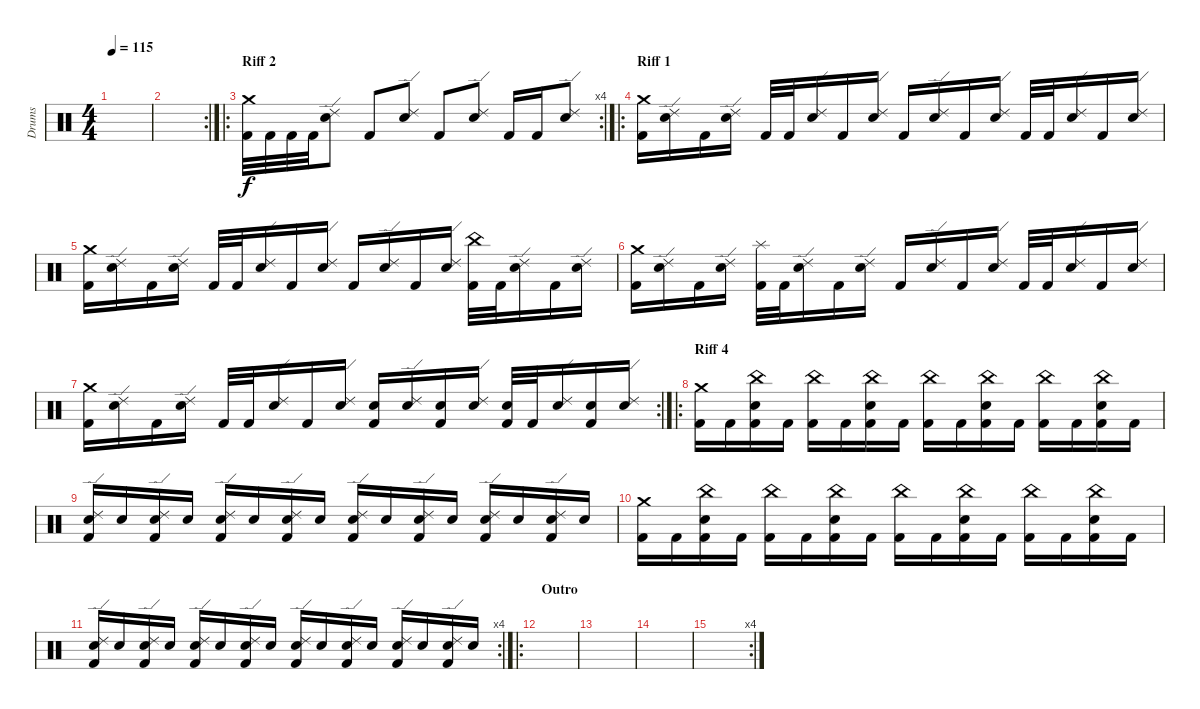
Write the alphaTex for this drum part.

\track ("Drums" "Drums") {instrument percussion}
\staff {score}
\articulation defaults
\ts (4 4)
\tempo 115
\clef neutral
\ks c
|
\rc 2
|
\ro
\rc 4
\section ("" "Riff 2")
("Kick (hit) 2" "Crash medium (hit)").32 "Kick (hit) 2".32 "Kick (hit) 2".32 "Kick (hit) 2".32 ("Snare (hit) 2" "Ride (edge) 2").8 "Kick (hit) 2".8 ("Snare (hit) 2" "Ride (edge) 2").8 "Kick (hit) 2".8 ("Snare (hit) 2" "Ride (edge) 2").8 "Kick (hit) 2".16 "Kick (hit) 2".16 ("Snare (hit) 2" "Ride (edge) 2").8 |
\ro
\section ("" "Riff 1")
("Kick (hit) 2" "Crash medium (hit)").16 ("Snare (hit) 2" "Ride (edge) 2").16 "Kick (hit) 2".16 ("Snare (hit) 2" "Ride (edge) 2").16 "Kick (hit) 2".32 "Kick (hit) 2".32 ("Snare (hit) 2" "Ride (edge) 2").16 "Kick (hit) 2".16 ("Snare (hit) 2" "Ride (edge) 2").16 "Kick (hit) 2".16 ("Snare (hit) 2" "Ride (edge) 2").16 "Kick (hit) 2".16 ("Snare (hit) 2" "Ride (edge) 2").16 "Kick (hit) 2".32 "Kick (hit) 2".32 ("Snare (hit) 2" "Ride (edge) 2").16 "Kick (hit) 2".16 ("Snare (hit) 2" "Ride (edge) 2").16 |
("Kick (hit) 2" "Crash medium (hit)").16 ("Snare (hit) 2" "Ride (edge) 2").16 "Kick (hit) 2".16 ("Snare (hit) 2" "Ride (edge) 2").16 "Kick (hit) 2".32 "Kick (hit) 2".32 ("Snare (hit) 2" "Ride (edge) 2").16 "Kick (hit) 2".16 ("Snare (hit) 2" "Ride (edge) 2").16 "Kick (hit) 2".16 ("Snare (hit) 2" "Ride (edge) 2").16 "Kick (hit) 2".16 ("Snare (hit) 2" "Ride (edge) 2").16 ("Kick (hit) 2" "China (hit)").32 "Kick (hit) 2".32 ("Snare (hit) 2" "Ride (edge) 2").16 "Kick (hit) 2".16 ("Snare (hit) 2" "Ride (edge) 2").16 |
("Kick (hit) 2" "Crash medium (hit)").16 ("Snare (hit) 2" "Ride (edge) 2").16 "Kick (hit) 2".16 ("Snare (hit) 2" "Ride (edge) 2").16 ("Kick (hit) 2" "Splash (hit)").32 "Kick (hit) 2".32 ("Snare (hit) 2" "Ride (edge) 2").16 "Kick (hit) 2".16 ("Snare (hit) 2" "Ride (edge) 2").16 "Kick (hit) 2".16 ("Snare (hit) 2" "Ride (edge) 2").16 "Kick (hit) 2".16 ("Snare (hit) 2" "Ride (edge) 2").16 "Kick (hit) 2".32 "Kick (hit) 2".32 ("Snare (hit) 2" "Ride (edge) 2").16 "Kick (hit) 2".16 ("Snare (hit) 2" "Ride (edge) 2").16 |
\rc 2
("Kick (hit) 2" "Crash medium (hit)").16 ("Snare (hit) 2" "Ride (edge) 2").16 "Kick (hit) 2".16 ("Snare (hit) 2" "Ride (edge) 2").16 "Kick (hit) 2".32 "Kick (hit) 2".32 ("Snare (hit) 2" "Ride (edge) 2").16 "Kick (hit) 2".16 ("Snare (hit) 2" "Ride (edge) 2").16 ("Kick (hit) 2" "Snare (hit) 2").16 ("Snare (hit) 2" "Ride (edge) 2").16 ("Kick (hit) 2" "Snare (hit) 2").16 ("Snare (hit) 2" "Ride (edge) 2").16 ("Kick (hit) 2" "Snare (hit) 2").32 "Kick (hit) 2".32 ("Snare (hit) 2" "Ride (edge) 2").16 ("Kick (hit) 2" "Snare (hit) 2").16 ("Snare (hit) 2" "Ride (edge) 2").16 |
\ro
\section ("" "Riff 4")
("Kick (hit) 2" "Crash medium (hit)").16 "Kick (hit) 2".16 ("Kick (hit) 2" "Snare (hit) 2" "China (hit)").16 "Kick (hit) 2".16 ("Kick (hit) 2" "China (hit)").16 "Kick (hit) 2".16 ("Kick (hit) 2" "Snare (hit) 2" "China (hit)").16 "Kick (hit) 2".16 ("Kick (hit) 2" "China (hit)").16 "Kick (hit) 2".16 ("Kick (hit) 2" "Snare (hit) 2" "China (hit)").16 "Kick (hit) 2".16 ("Kick (hit) 2" "China (hit)").16 "Kick (hit) 2".16 ("Kick (hit) 2" "Snare (hit) 2" "China (hit)").16 "Kick (hit) 2".16 |
("Kick (hit) 2" "Snare (hit) 2" "Ride (edge) 2").16 "Snare (hit) 2".16 ("Kick (hit) 2" "Snare (hit) 2" "Ride (edge) 2").16 "Snare (hit) 2".16 ("Kick (hit) 2" "Snare (hit) 2" "Ride (edge) 2").16 "Snare (hit) 2".16 ("Kick (hit) 2" "Snare (hit) 2" "Ride (edge) 2").16 "Snare (hit) 2".16 ("Kick (hit) 2" "Snare (hit) 2" "Ride (edge) 2").16 "Snare (hit) 2".16 ("Kick (hit) 2" "Snare (hit) 2" "Ride (edge) 2").16 "Snare (hit) 2".16 ("Kick (hit) 2" "Snare (hit) 2" "Ride (edge) 2").16 "Snare (hit) 2".16 ("Kick (hit) 2" "Snare (hit) 2" "Ride (edge) 2").16 "Snare (hit) 2".16 |
("Kick (hit) 2" "Crash medium (hit)").16 "Kick (hit) 2".16 ("Kick (hit) 2" "Snare (hit) 2" "China (hit)").16 "Kick (hit) 2".16 ("Kick (hit) 2" "China (hit)").16 "Kick (hit) 2".16 ("Kick (hit) 2" "Snare (hit) 2" "China (hit)").16 "Kick (hit) 2".16 ("Kick (hit) 2" "China (hit)").16 "Kick (hit) 2".16 ("Kick (hit) 2" "Snare (hit) 2" "China (hit)").16 "Kick (hit) 2".16 ("Kick (hit) 2" "China (hit)").16 "Kick (hit) 2".16 ("Kick (hit) 2" "Snare (hit) 2" "China (hit)").16 "Kick (hit) 2".16 |
\rc 4
("Kick (hit) 2" "Snare (hit) 2" "Ride (edge) 2").16 "Snare (hit) 2".16 ("Kick (hit) 2" "Snare (hit) 2" "Ride (edge) 2").16 "Snare (hit) 2".16 ("Kick (hit) 2" "Snare (hit) 2" "Ride (edge) 2").16 "Snare (hit) 2".16 ("Kick (hit) 2" "Snare (hit) 2" "Ride (edge) 2").16 "Snare (hit) 2".16 ("Kick (hit) 2" "Snare (hit) 2" "Ride (edge) 2").16 "Snare (hit) 2".16 ("Kick (hit) 2" "Snare (hit) 2" "Ride (edge) 2").16 "Snare (hit) 2".16 ("Kick (hit) 2" "Snare (hit) 2" "Ride (edge) 2").16 "Snare (hit) 2".16 ("Kick (hit) 2" "Snare (hit) 2" "Ride (edge) 2").16 "Snare (hit) 2".16 |
\ro
\section ("" "Outro")
|
|
|
\rc 4
